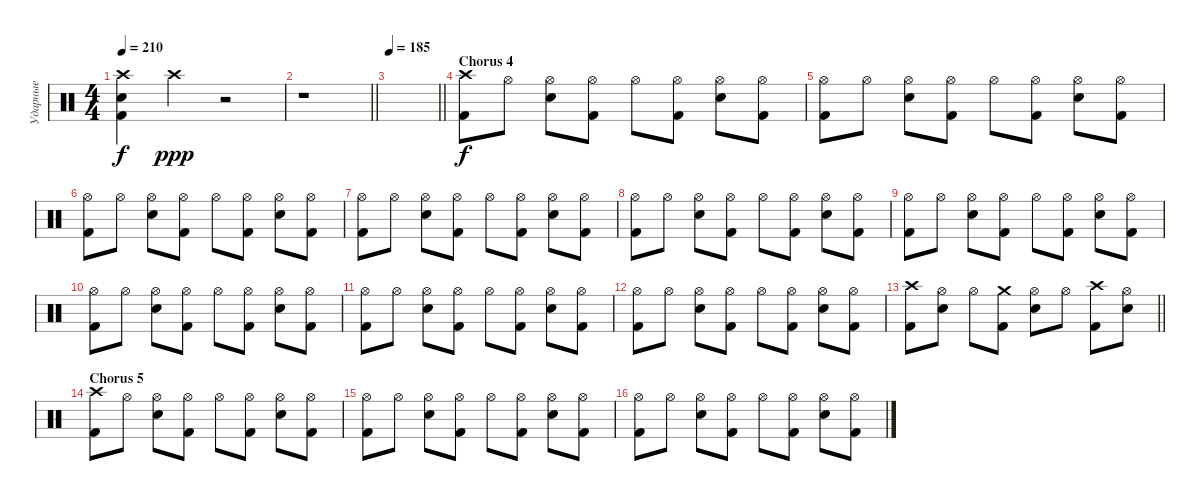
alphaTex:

\track ("Ударные" "Ударные") {instrument percussion}
\staff {score}
\articulation defaults
\ts (4 4)
\tempo 210
\clef neutral
\ks c
("Kick (hit) 2" "Electric Snare (hit)" "Crash high (hit)").4{dy f volume 12} "Crash high (hit)".4{dy ppp volume 0} r.2 |
\barLineRight lightlight
r.1{volume 12} |
\tempo 185
\barLineRight lightlight
|
\section ("" "Chorus 4")
("Kick (hit) 2" "Crash high (hit)").8{dy f volume 12} "Hi-Hat (open)".8 ("Hi-Hat (open)" "Electric Snare (hit)").8 ("Hi-Hat (open)" "Kick (hit) 2").8 "Hi-Hat (open)".8 ("Hi-Hat (open)" "Kick (hit) 2").8 ("Hi-Hat (open)" "Electric Snare (hit)").8 ("Hi-Hat (open)" "Kick (hit) 2").8 |
("Kick (hit) 2" "Hi-Hat (open)").8 "Hi-Hat (open)".8 ("Hi-Hat (open)" "Electric Snare (hit)").8 ("Hi-Hat (open)" "Kick (hit) 2").8 "Hi-Hat (open)".8 ("Hi-Hat (open)" "Kick (hit) 2").8 ("Hi-Hat (open)" "Electric Snare (hit)").8 ("Hi-Hat (open)" "Kick (hit) 2").8 |
("Kick (hit) 2" "Hi-Hat (open)").8 "Hi-Hat (open)".8 ("Hi-Hat (open)" "Electric Snare (hit)").8 ("Hi-Hat (open)" "Kick (hit) 2").8 "Hi-Hat (open)".8 ("Hi-Hat (open)" "Kick (hit) 2").8 ("Hi-Hat (open)" "Electric Snare (hit)").8 ("Hi-Hat (open)" "Kick (hit) 2").8 |
("Kick (hit) 2" "Hi-Hat (open)").8 "Hi-Hat (open)".8 ("Hi-Hat (open)" "Electric Snare (hit)").8 ("Hi-Hat (open)" "Kick (hit) 2").8 "Hi-Hat (open)".8 ("Hi-Hat (open)" "Kick (hit) 2").8 ("Hi-Hat (open)" "Electric Snare (hit)").8 ("Hi-Hat (open)" "Kick (hit) 2").8 |
("Kick (hit) 2" "Hi-Hat (open)").8 "Hi-Hat (open)".8 ("Hi-Hat (open)" "Electric Snare (hit)").8 ("Hi-Hat (open)" "Kick (hit) 2").8 "Hi-Hat (open)".8 ("Hi-Hat (open)" "Kick (hit) 2").8 ("Hi-Hat (open)" "Electric Snare (hit)").8 ("Hi-Hat (open)" "Kick (hit) 2").8 |
("Kick (hit) 2" "Hi-Hat (open)").8 "Hi-Hat (open)".8 ("Hi-Hat (open)" "Electric Snare (hit)").8 ("Hi-Hat (open)" "Kick (hit) 2").8 "Hi-Hat (open)".8 ("Hi-Hat (open)" "Kick (hit) 2").8 ("Hi-Hat (open)" "Electric Snare (hit)").8 ("Hi-Hat (open)" "Kick (hit) 2").8 |
("Kick (hit) 2" "Hi-Hat (open)").8 "Hi-Hat (open)".8 ("Hi-Hat (open)" "Electric Snare (hit)").8 ("Hi-Hat (open)" "Kick (hit) 2").8 "Hi-Hat (open)".8 ("Hi-Hat (open)" "Kick (hit) 2").8 ("Hi-Hat (open)" "Electric Snare (hit)").8 ("Hi-Hat (open)" "Kick (hit) 2").8 |
("Kick (hit) 2" "Hi-Hat (open)").8 "Hi-Hat (open)".8 ("Hi-Hat (open)" "Electric Snare (hit)").8 ("Hi-Hat (open)" "Kick (hit) 2").8 "Hi-Hat (open)".8 ("Hi-Hat (open)" "Kick (hit) 2").8 ("Hi-Hat (open)" "Electric Snare (hit)").8 ("Hi-Hat (open)" "Kick (hit) 2").8 |
("Kick (hit) 2" "Hi-Hat (open)").8 "Hi-Hat (open)".8 ("Hi-Hat (open)" "Electric Snare (hit)").8 ("Hi-Hat (open)" "Kick (hit) 2").8 "Hi-Hat (open)".8 ("Hi-Hat (open)" "Kick (hit) 2").8 ("Hi-Hat (open)" "Electric Snare (hit)").8 ("Hi-Hat (open)" "Kick (hit) 2").8 |
\barLineRight lightlight
("Kick (hit) 2" "Crash high (hit)").8 ("Hi-Hat (open)" "Electric Snare (hit)").8 "Hi-Hat (open)".8 ("Crash medium (hit)" "Kick (hit) 2").8 ("Hi-Hat (open)" "Electric Snare (hit)").8 "Hi-Hat (open)".8 ("Crash high (hit)" "Kick (hit) 2").8 ("Hi-Hat (open)" "Electric Snare (hit)").8 |
\section ("" "Chorus 5")
("Kick (hit) 2" "Crash high (hit)").8 "Hi-Hat (open)".8 ("Hi-Hat (open)" "Electric Snare (hit)").8 ("Hi-Hat (open)" "Kick (hit) 2").8 "Hi-Hat (open)".8 ("Hi-Hat (open)" "Kick (hit) 2").8 ("Hi-Hat (open)" "Electric Snare (hit)").8 ("Hi-Hat (open)" "Kick (hit) 2").8 |
("Kick (hit) 2" "Hi-Hat (open)").8 "Hi-Hat (open)".8 ("Hi-Hat (open)" "Electric Snare (hit)").8 ("Hi-Hat (open)" "Kick (hit) 2").8 "Hi-Hat (open)".8 ("Hi-Hat (open)" "Kick (hit) 2").8 ("Hi-Hat (open)" "Electric Snare (hit)").8 ("Hi-Hat (open)" "Kick (hit) 2").8 |
("Kick (hit) 2" "Hi-Hat (open)").8 "Hi-Hat (open)".8 ("Hi-Hat (open)" "Electric Snare (hit)").8 ("Hi-Hat (open)" "Kick (hit) 2").8 "Hi-Hat (open)".8 ("Hi-Hat (open)" "Kick (hit) 2").8 ("Hi-Hat (open)" "Electric Snare (hit)").8 ("Hi-Hat (open)" "Kick (hit) 2").8
